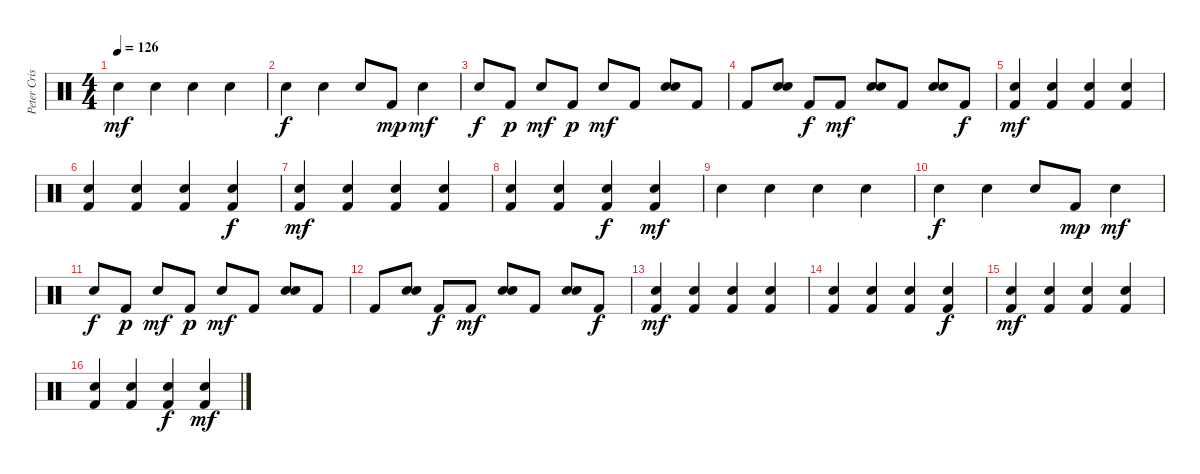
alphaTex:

\track ("Peter Criss" "Peter Cris") {instrument percussion}
\staff {score}
\articulation defaults
\ts (4 4)
\tempo 126
\clef neutral
\ks c "Electric Snare (hit)".4{dy mf} "Electric Snare (hit)".4 "Electric Snare (hit)".4 "Electric Snare (hit)".4
|
"Electric Snare (hit)".4{dy f} "Electric Snare (hit)".4 "Electric Snare (hit)".8 "Kick (hit) 2".8{dy mp} "Electric Snare (hit)".4{dy mf} |
"Electric Snare (hit)".8{dy f} "Kick (hit) 2".8{dy p} "Electric Snare (hit)".8{dy mf} "Kick (hit) 2".8{dy p} "Electric Snare (hit)".8{dy mf} "Kick (hit) 2".8 ("Electric Snare (hit)" "Electric Snare (hit)").8 "Kick (hit) 2".8 |
"Kick (hit) 2".8 ("Electric Snare (hit)" "Electric Snare (hit)").8 "Kick (hit) 2".8{dy f} "Kick (hit) 2".8{dy mf} ("Electric Snare (hit)" "Electric Snare (hit)").8 "Kick (hit) 2".8 ("Electric Snare (hit)" "Electric Snare (hit)").8 "Kick (hit) 2".8{dy f} |
("Kick (hit) 2" "Electric Snare (hit)").4{dy mf} ("Kick (hit) 2" "Electric Snare (hit)").4 ("Kick (hit) 2" "Electric Snare (hit)").4 ("Kick (hit) 2" "Electric Snare (hit)").4 |
("Kick (hit) 2" "Electric Snare (hit)").4 ("Kick (hit) 2" "Electric Snare (hit)").4 ("Kick (hit) 2" "Electric Snare (hit)").4 ("Kick (hit) 2" "Electric Snare (hit)").4{dy f} |
("Kick (hit) 2" "Electric Snare (hit)").4{dy mf} ("Kick (hit) 2" "Electric Snare (hit)").4 ("Kick (hit) 2" "Electric Snare (hit)").4 ("Kick (hit) 2" "Electric Snare (hit)").4 |
("Kick (hit) 2" "Electric Snare (hit)").4 ("Kick (hit) 2" "Electric Snare (hit)").4 ("Kick (hit) 2" "Electric Snare (hit)").4{dy f} ("Kick (hit) 2" "Electric Snare (hit)").4{dy mf} |
"Electric Snare (hit)".4 "Electric Snare (hit)".4 "Electric Snare (hit)".4 "Electric Snare (hit)".4 |
"Electric Snare (hit)".4{dy f} "Electric Snare (hit)".4 "Electric Snare (hit)".8 "Kick (hit) 2".8{dy mp} "Electric Snare (hit)".4{dy mf} |
"Electric Snare (hit)".8{dy f} "Kick (hit) 2".8{dy p} "Electric Snare (hit)".8{dy mf} "Kick (hit) 2".8{dy p} "Electric Snare (hit)".8{dy mf} "Kick (hit) 2".8 ("Electric Snare (hit)" "Electric Snare (hit)").8 "Kick (hit) 2".8 |
"Kick (hit) 2".8{volume 0} ("Electric Snare (hit)" "Electric Snare (hit)").8 "Kick (hit) 2".8{dy f} "Kick (hit) 2".8{dy mf} ("Electric Snare (hit)" "Electric Snare (hit)").8 "Kick (hit) 2".8 ("Electric Snare (hit)" "Electric Snare (hit)").8 "Kick (hit) 2".8{dy f} |
("Kick (hit) 2" "Electric Snare (hit)").4{dy mf} ("Kick (hit) 2" "Electric Snare (hit)").4 ("Kick (hit) 2" "Electric Snare (hit)").4 ("Kick (hit) 2" "Electric Snare (hit)").4 |
("Kick (hit) 2" "Electric Snare (hit)").4 ("Kick (hit) 2" "Electric Snare (hit)").4 ("Kick (hit) 2" "Electric Snare (hit)").4 ("Kick (hit) 2" "Electric Snare (hit)").4{dy f} |
("Kick (hit) 2" "Electric Snare (hit)").4{dy mf} ("Kick (hit) 2" "Electric Snare (hit)").4 ("Kick (hit) 2" "Electric Snare (hit)").4 ("Kick (hit) 2" "Electric Snare (hit)").4 |
("Kick (hit) 2" "Electric Snare (hit)").4 ("Kick (hit) 2" "Electric Snare (hit)").4 ("Kick (hit) 2" "Electric Snare (hit)").4{dy f} ("Kick (hit) 2" "Electric Snare (hit)").4{dy mf}
